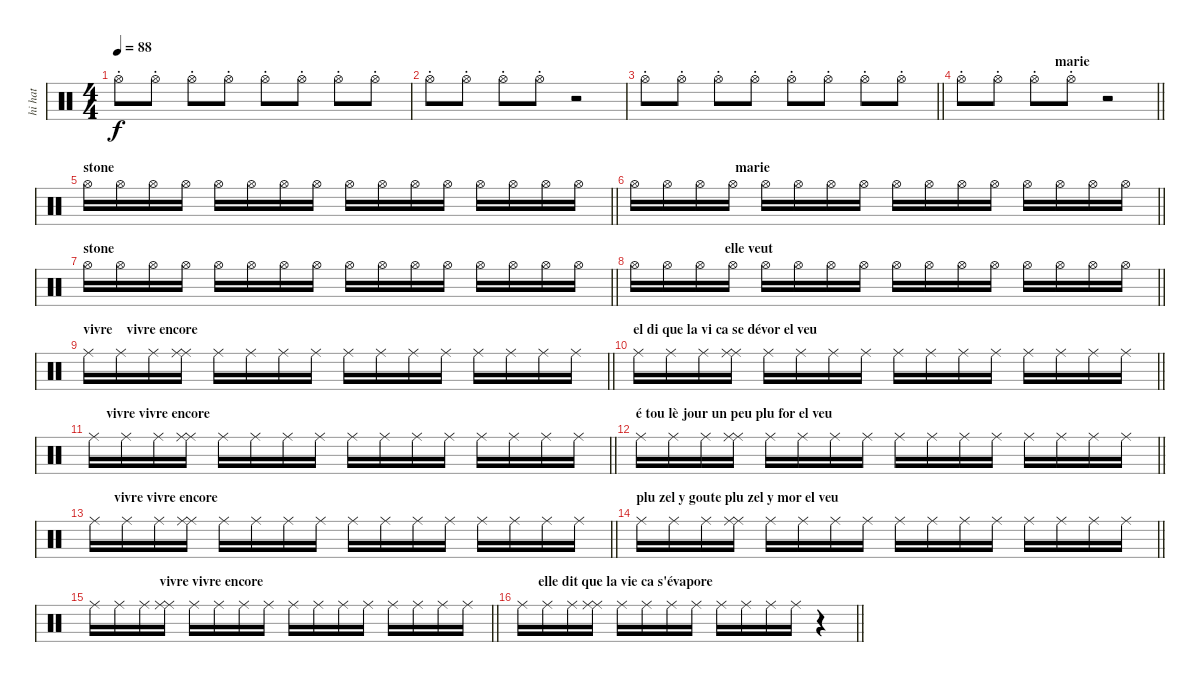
\track ("hi hat" "hi hat") {instrument percussion}
\staff {score}
\articulation defaults
\ts (4 4)
\tempo 88
\clef neutral
\ks c "Hi-Hat (open)"{st}.8{dy f} "Hi-Hat (open)"{st}.8 "Hi-Hat (open)"{st}.8 "Hi-Hat (open)"{st}.8 "Hi-Hat (open)"{st}.8 "Hi-Hat (open)"{st}.8 "Hi-Hat (open)"{st}.8 "Hi-Hat (open)"{st}.8
|
"Hi-Hat (open)"{st}.8 "Hi-Hat (open)"{st}.8 "Hi-Hat (open)"{st}.8 "Hi-Hat (open)"{st}.8 r.2 |
\barLineRight lightlight "Hi-Hat (open)"{st}.8 "Hi-Hat (open)"{st}.8 "Hi-Hat (open)"{st}.8 "Hi-Hat (open)"{st}.8 "Hi-Hat (open)"{st}.8 "Hi-Hat (open)"{st}.8 "Hi-Hat (open)"{st}.8 "Hi-Hat (open)"{st}.8
|
\section ("" "                            marie ")
\barLineRight lightlight "Hi-Hat (open)"{st}.8 "Hi-Hat (open)"{st}.8 "Hi-Hat (open)"{st}.8 "Hi-Hat (open)"{st}.8
r.2 |
\section ("" "stone")
\barLineRight lightlight "Hi-Hat (open)".16 "Hi-Hat (open)".16 "Hi-Hat (open)".16 "Hi-Hat (open)".16 "Hi-Hat (open)".16 "Hi-Hat (open)".16 "Hi-Hat (open)".16 "Hi-Hat (open)".16 "Hi-Hat (open)".16 "Hi-Hat (open)".16 "Hi-Hat (open)".16 "Hi-Hat (open)".16 "Hi-Hat (open)".16 "Hi-Hat (open)".16 "Hi-Hat (open)".16 "Hi-Hat (open)".16
|
\section ("" "                              marie")
\barLineRight lightlight "Hi-Hat (open)".16 "Hi-Hat (open)".16 "Hi-Hat (open)".16 "Hi-Hat (open)".16 "Hi-Hat (open)".16 "Hi-Hat (open)".16 "Hi-Hat (open)".16 "Hi-Hat (open)".16 "Hi-Hat (open)".16 "Hi-Hat (open)".16 "Hi-Hat (open)".16 "Hi-Hat (open)".16 "Hi-Hat (open)".16 "Hi-Hat (open)".16 "Hi-Hat (open)".16 "Hi-Hat (open)".16
|
\section ("" "stone")
\barLineRight lightlight "Hi-Hat (open)".16 "Hi-Hat (open)".16 "Hi-Hat (open)".16 "Hi-Hat (open)".16 "Hi-Hat (open)".16 "Hi-Hat (open)".16 "Hi-Hat (open)".16 "Hi-Hat (open)".16 "Hi-Hat (open)".16 "Hi-Hat (open)".16 "Hi-Hat (open)".16 "Hi-Hat (open)".16 "Hi-Hat (open)".16 "Hi-Hat (open)".16 "Hi-Hat (open)".16 "Hi-Hat (open)".16
|
\section ("" "                           elle veut")
\barLineRight lightlight "Hi-Hat (open)".16 "Hi-Hat (open)".16 "Hi-Hat (open)".16 "Hi-Hat (open)".16 "Hi-Hat (open)".16 "Hi-Hat (open)".16 "Hi-Hat (open)".16 "Hi-Hat (open)".16 "Hi-Hat (open)".16 "Hi-Hat (open)".16 "Hi-Hat (open)".16 "Hi-Hat (open)".16 "Hi-Hat (open)".16 "Hi-Hat (open)".16 "Hi-Hat (open)".16 "Hi-Hat (open)".16
|
\section ("" "vivre    vivre encore")
\barLineRight lightlight "Ride (middle)".16 "Ride (middle)".16 "Ride (middle)".16
("Ride (middle)" "Ride (middle)").16 "Ride (middle)".16 "Ride (middle)".16 "Ride (middle)".16 "Ride (middle)".16 "Ride (middle)".16 "Ride (middle)".16 "Ride (middle)".16 "Ride (middle)".16 "Ride (middle)".16 "Ride (middle)".16 "Ride (middle)".16 "Ride (middle)".16 |
\section ("" "el di que la vi ca se dévor el veu")
\barLineRight lightlight "Ride (middle)".16 "Ride (middle)".16 "Ride (middle)".16
("Ride (middle)" "Ride (middle)").16 "Ride (middle)".16 "Ride (middle)".16 "Ride (middle)".16 "Ride (middle)".16 "Ride (middle)".16 "Ride (middle)".16 "Ride (middle)".16 "Ride (middle)".16 "Ride (middle)".16 "Ride (middle)".16 "Ride (middle)".16 "Ride (middle)".16 |
\section ("" "     vivre vivre encore")
\barLineRight lightlight "Ride (middle)".16 "Ride (middle)".16 "Ride (middle)".16
("Ride (middle)" "Ride (middle)").16 "Ride (middle)".16 "Ride (middle)".16 "Ride (middle)".16 "Ride (middle)".16 "Ride (middle)".16 "Ride (middle)".16 "Ride (middle)".16 "Ride (middle)".16 "Ride (middle)".16 "Ride (middle)".16 "Ride (middle)".16 "Ride (middle)".16 |
\section ("" "é tou lè jour un peu plu for el veu")
\barLineRight lightlight "Ride (middle)".16 "Ride (middle)".16 "Ride (middle)".16
("Ride (middle)" "Ride (middle)").16 "Ride (middle)".16 "Ride (middle)".16 "Ride (middle)".16 "Ride (middle)".16 "Ride (middle)".16 "Ride (middle)".16 "Ride (middle)".16 "Ride (middle)".16 "Ride (middle)".16 "Ride (middle)".16 "Ride (middle)".16 "Ride (middle)".16 |
\section ("" "       vivre vivre encore")
\barLineRight lightlight "Ride (middle)".16 "Ride (middle)".16 "Ride (middle)".16
("Ride (middle)" "Ride (middle)").16 "Ride (middle)".16 "Ride (middle)".16 "Ride (middle)".16 "Ride (middle)".16 "Ride (middle)".16 "Ride (middle)".16 "Ride (middle)".16 "Ride (middle)".16 "Ride (middle)".16 "Ride (middle)".16 "Ride (middle)".16 "Ride (middle)".16 |
\section ("" "plu zel y goute plu zel y mor el veu")
\barLineRight lightlight "Ride (middle)".16 "Ride (middle)".16 "Ride (middle)".16
("Ride (middle)" "Ride (middle)").16 "Ride (middle)".16 "Ride (middle)".16 "Ride (middle)".16 "Ride (middle)".16 "Ride (middle)".16 "Ride (middle)".16 "Ride (middle)".16 "Ride (middle)".16 "Ride (middle)".16 "Ride (middle)".16 "Ride (middle)".16 "Ride (middle)".16 |
\section ("" "                    vivre vivre encore")
\barLineRight lightlight "Ride (middle)".16 "Ride (middle)".16 "Ride (middle)".16
("Ride (middle)" "Ride (middle)").16 "Ride (middle)".16 "Ride (middle)".16 "Ride (middle)".16 "Ride (middle)".16 "Ride (middle)".16 "Ride (middle)".16 "Ride (middle)".16 "Ride (middle)".16 "Ride (middle)".16 "Ride (middle)".16 "Ride (middle)".16 "Ride (middle)".16 |
\section ("" "      elle dit que la vie ca s'évapore")
\barLineRight lightlight "Ride (middle)".16 "Ride (middle)".16 "Ride (middle)".16
("Ride (middle)" "Ride (middle)").16 "Ride (middle)".16 "Ride (middle)".16 "Ride (middle)".16 "Ride (middle)".16 "Ride (middle)".16 "Ride (middle)".16 "Ride (middle)".16 "Ride (middle)".16 r.4
